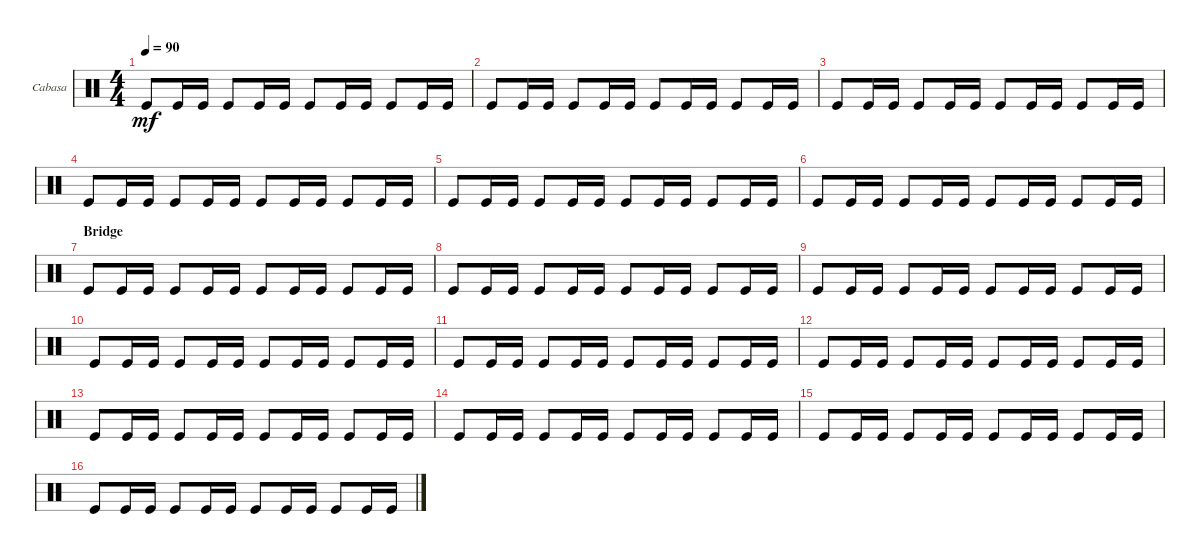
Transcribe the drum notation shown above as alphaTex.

\defaultSystemsLayout 4
\bracketExtendMode groupsimilarinstruments
\firstSystemTrackNameOrientation horizontal
\otherSystemsTrackNameOrientation horizontal
\track ("Cabasa" "Cabasa") {instrument percussion}
\staff {score}
\articulation defaults
\ts (4 4)
\tempo 90
\clef neutral
\scale
0.333333
\ks c "Kick (hit)".8{dy mf} "Kick (hit)".16 "Kick (hit)".16 "Kick (hit)".8 "Kick (hit)".16 "Kick (hit)".16 "Kick (hit)".8 "Kick (hit)".16 "Kick (hit)".16 "Kick (hit)".8 "Kick (hit)".16 "Kick (hit)".16
|
\scale
0.333333 "Kick (hit)".8 "Kick (hit)".16 "Kick (hit)".16 "Kick (hit)".8 "Kick (hit)".16 "Kick (hit)".16 "Kick (hit)".8 "Kick (hit)".16 "Kick (hit)".16 "Kick (hit)".8 "Kick (hit)".16 "Kick (hit)".16 |
\scale
0.333333 "Kick (hit)".8 "Kick (hit)".16 "Kick (hit)".16 "Kick (hit)".8 "Kick (hit)".16 "Kick (hit)".16 "Kick (hit)".8 "Kick (hit)".16 "Kick (hit)".16 "Kick (hit)".8 "Kick (hit)".16 "Kick (hit)".16 |
\scale
0.333333 "Kick (hit)".8 "Kick (hit)".16 "Kick (hit)".16 "Kick (hit)".8 "Kick (hit)".16 "Kick (hit)".16 "Kick (hit)".8 "Kick (hit)".16 "Kick (hit)".16 "Kick (hit)".8 "Kick (hit)".16 "Kick (hit)".16 |
\scale
0.333333 "Kick (hit)".8 "Kick (hit)".16 "Kick (hit)".16 "Kick (hit)".8 "Kick (hit)".16 "Kick (hit)".16 "Kick (hit)".8 "Kick (hit)".16 "Kick (hit)".16 "Kick (hit)".8 "Kick (hit)".16 "Kick (hit)".16 |
\scale
0.333333 "Kick (hit)".8 "Kick (hit)".16 "Kick (hit)".16 "Kick (hit)".8 "Kick (hit)".16 "Kick (hit)".16 "Kick (hit)".8 "Kick (hit)".16 "Kick (hit)".16 "Kick (hit)".8 "Kick (hit)".16 "Kick (hit)".16 |
\section ("" "Bridge")
\scale
0.333333 "Kick (hit)".8 "Kick (hit)".16 "Kick (hit)".16 "Kick (hit)".8 "Kick (hit)".16 "Kick (hit)".16 "Kick (hit)".8 "Kick (hit)".16 "Kick (hit)".16 "Kick (hit)".8 "Kick (hit)".16 "Kick (hit)".16 |
\scale
0.333333 "Kick (hit)".8 "Kick (hit)".16 "Kick (hit)".16 "Kick (hit)".8 "Kick (hit)".16 "Kick (hit)".16 "Kick (hit)".8 "Kick (hit)".16 "Kick (hit)".16 "Kick (hit)".8 "Kick (hit)".16 "Kick (hit)".16 |
\scale
0.333333 "Kick (hit)".8 "Kick (hit)".16 "Kick (hit)".16 "Kick (hit)".8 "Kick (hit)".16 "Kick (hit)".16 "Kick (hit)".8 "Kick (hit)".16 "Kick (hit)".16 "Kick (hit)".8 "Kick (hit)".16 "Kick (hit)".16 |
\scale
0.333333 "Kick (hit)".8 "Kick (hit)".16 "Kick (hit)".16 "Kick (hit)".8 "Kick (hit)".16 "Kick (hit)".16 "Kick (hit)".8 "Kick (hit)".16 "Kick (hit)".16 "Kick (hit)".8 "Kick (hit)".16 "Kick (hit)".16 |
\scale
0.333333 "Kick (hit)".8 "Kick (hit)".16 "Kick (hit)".16 "Kick (hit)".8 "Kick (hit)".16 "Kick (hit)".16 "Kick (hit)".8 "Kick (hit)".16 "Kick (hit)".16 "Kick (hit)".8 "Kick (hit)".16 "Kick (hit)".16 |
\scale
0.333333 "Kick (hit)".8 "Kick (hit)".16 "Kick (hit)".16 "Kick (hit)".8 "Kick (hit)".16 "Kick (hit)".16 "Kick (hit)".8 "Kick (hit)".16 "Kick (hit)".16 "Kick (hit)".8 "Kick (hit)".16 "Kick (hit)".16 |
\scale
0.333333 "Kick (hit)".8 "Kick (hit)".16 "Kick (hit)".16 "Kick (hit)".8 "Kick (hit)".16 "Kick (hit)".16 "Kick (hit)".8 "Kick (hit)".16 "Kick (hit)".16 "Kick (hit)".8 "Kick (hit)".16 "Kick (hit)".16 |
\scale
0.333333 "Kick (hit)".8 "Kick (hit)".16 "Kick (hit)".16 "Kick (hit)".8 "Kick (hit)".16 "Kick (hit)".16 "Kick (hit)".8 "Kick (hit)".16 "Kick (hit)".16 "Kick (hit)".8 "Kick (hit)".16 "Kick (hit)".16 |
\scale
0.333333 "Kick (hit)".8 "Kick (hit)".16 "Kick (hit)".16 "Kick (hit)".8 "Kick (hit)".16 "Kick (hit)".16 "Kick (hit)".8 "Kick (hit)".16 "Kick (hit)".16 "Kick (hit)".8 "Kick (hit)".16 "Kick (hit)".16 |
\scale
0.333333 "Kick (hit)".8 "Kick (hit)".16 "Kick (hit)".16 "Kick (hit)".8 "Kick (hit)".16 "Kick (hit)".16 "Kick (hit)".8 "Kick (hit)".16 "Kick (hit)".16 "Kick (hit)".8 "Kick (hit)".16 "Kick (hit)".16
